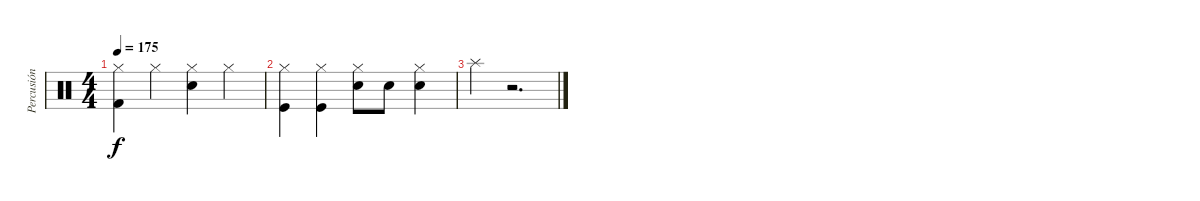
\track ("Percusión" "Percusión") {instrument percussion}
\staff {score}
\articulation defaults
\ts (4 4)
\tempo 175
\clef neutral
\ks c
("Hi-Hat (closed)" "Kick (hit) 2").4{dy f} "Hi-Hat (closed)".4 ("Snare (hit) 2" "Hi-Hat (closed)").4 "Hi-Hat (closed)".4 |
("Kick (hit)" "Hi-Hat (closed)").4 ("Kick (hit)" "Hi-Hat (closed)").4 ("Snare (hit) 2" "Hi-Hat (closed)").8 "Snare (hit) 2".8 ("Electric Snare (hit)" "Hi-Hat (closed)").4 |
"Splash (hit)".4 r.2{d}
